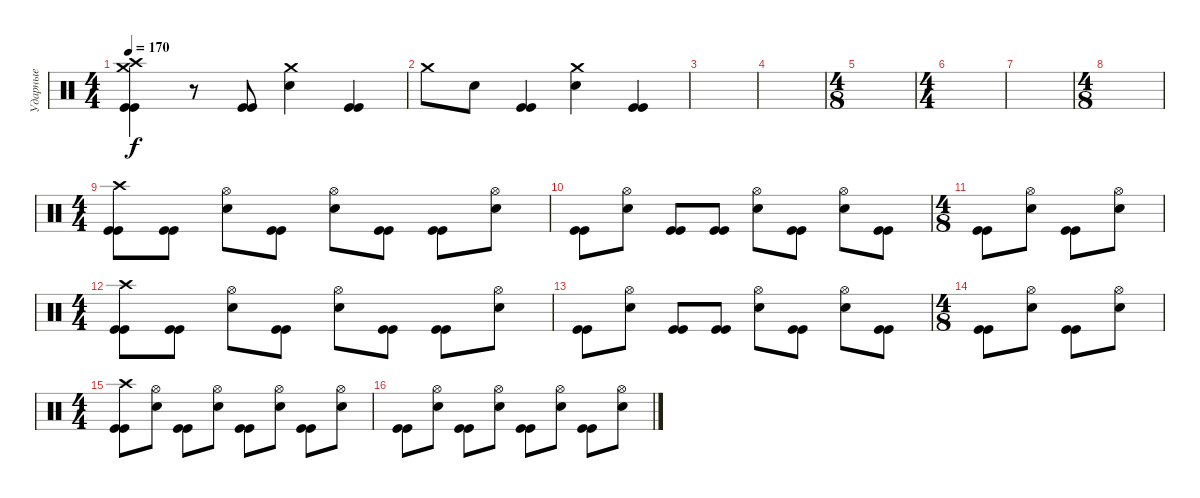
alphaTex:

\track ("Ударные" "Ударные") {instrument percussion}
\staff {score}
\articulation defaults
\ts (4 4)
\tempo 170
\clef neutral
\ks c
("Crash high (hit)" "Crash medium (hit)" "Kick (hit)" "Kick (hit)").4{dy f} r.8 ("Kick (hit)" "Kick (hit)").8 ("Crash medium (hit)" "Electric Snare (hit)").4 ("Kick (hit)" "Kick (hit)").4 |
"Crash medium (hit)".8 "Electric Snare (hit)".8 ("Kick (hit)" "Kick (hit)").4 ("Crash medium (hit)" "Electric Snare (hit)").4 ("Kick (hit)" "Kick (hit)").4 |
|
|
\ts (4 8)
|
\ts (4 4)
|
|
\ts (4 8)
|
\ts (4 4)
("Crash high (hit)" "Kick (hit)" "Kick (hit)").8 ("Kick (hit)" "Kick (hit)").8 ("Hi-Hat (open)" "Electric Snare (hit)").8 ("Kick (hit)" "Kick (hit)").8 ("Hi-Hat (open)" "Electric Snare (hit)").8 ("Kick (hit)" "Kick (hit)").8 ("Kick (hit)" "Kick (hit)").8 ("Hi-Hat (open)" "Electric Snare (hit)").8 |
("Kick (hit)" "Kick (hit)").8 ("Hi-Hat (open)" "Electric Snare (hit)").8 ("Kick (hit)" "Kick (hit)").8 ("Kick (hit)" "Kick (hit)").8 ("Hi-Hat (open)" "Electric Snare (hit)").8 ("Kick (hit)" "Kick (hit)").8 ("Hi-Hat (open)" "Electric Snare (hit)").8 ("Kick (hit)" "Kick (hit)").8 |
\ts (4 8)
("Kick (hit)" "Kick (hit)").8 ("Hi-Hat (open)" "Electric Snare (hit)").8 ("Kick (hit)" "Kick (hit)").8 ("Hi-Hat (open)" "Electric Snare (hit)").8 |
\ts (4 4)
("Crash high (hit)" "Kick (hit)" "Kick (hit)").8 ("Kick (hit)" "Kick (hit)").8 ("Hi-Hat (open)" "Electric Snare (hit)").8 ("Kick (hit)" "Kick (hit)").8 ("Hi-Hat (open)" "Electric Snare (hit)").8 ("Kick (hit)" "Kick (hit)").8 ("Kick (hit)" "Kick (hit)").8 ("Hi-Hat (open)" "Electric Snare (hit)").8 |
("Kick (hit)" "Kick (hit)").8 ("Hi-Hat (open)" "Electric Snare (hit)").8 ("Kick (hit)" "Kick (hit)").8 ("Kick (hit)" "Kick (hit)").8 ("Hi-Hat (open)" "Electric Snare (hit)").8 ("Kick (hit)" "Kick (hit)").8 ("Hi-Hat (open)" "Electric Snare (hit)").8 ("Kick (hit)" "Kick (hit)").8 |
\ts (4 8)
("Kick (hit)" "Kick (hit)").8 ("Hi-Hat (open)" "Electric Snare (hit)").8 ("Kick (hit)" "Kick (hit)").8 ("Hi-Hat (open)" "Electric Snare (hit)").8 |
\ts (4 4)
("Crash high (hit)" "Kick (hit)" "Kick (hit)").8 ("Hi-Hat (open)" "Electric Snare (hit)").8 ("Kick (hit)" "Kick (hit)").8 ("Hi-Hat (open)" "Electric Snare (hit)").8 ("Kick (hit)" "Kick (hit)").8 ("Hi-Hat (open)" "Electric Snare (hit)").8 ("Kick (hit)" "Kick (hit)").8 ("Hi-Hat (open)" "Electric Snare (hit)").8 |
("Kick (hit)" "Kick (hit)").8 ("Hi-Hat (open)" "Electric Snare (hit)").8 ("Kick (hit)" "Kick (hit)").8 ("Hi-Hat (open)" "Electric Snare (hit)").8 ("Kick (hit)" "Kick (hit)").8 ("Hi-Hat (open)" "Electric Snare (hit)").8 ("Kick (hit)" "Kick (hit)").8 ("Hi-Hat (open)" "Electric Snare (hit)").8
